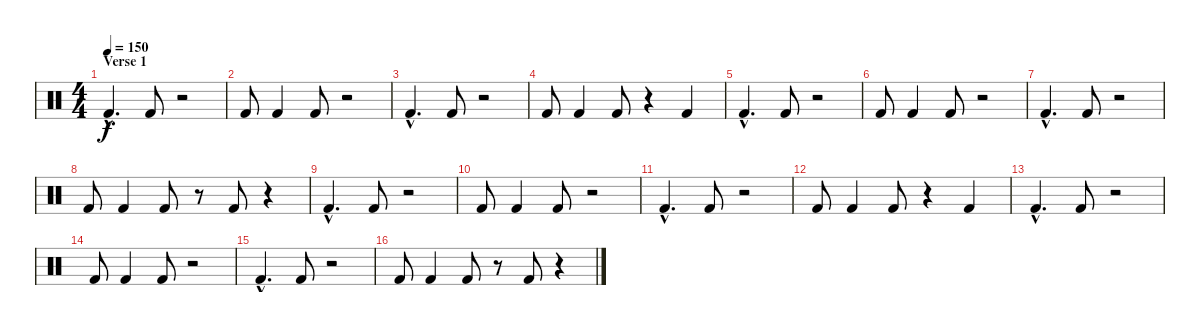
\track "" {instrument percussion}
\staff {score}
\articulation defaults
\ts (4 4)
\section ("" "Verse 1")
\tempo 150
\clef neutral
\ks c "Kick (hit) 2"{hac}.4{d dy f} "Kick (hit) 2".8
r.2 |
"Kick (hit) 2".8 "Kick (hit) 2".4 "Kick (hit) 2".8 r.2 |
"Kick (hit) 2"{hac}.4{d} "Kick (hit) 2".8 r.2 |
"Kick (hit) 2".8 "Kick (hit) 2".4 "Kick (hit) 2".8 r.4 "Kick (hit) 2".4 |
"Kick (hit) 2"{hac}.4{d} "Kick (hit) 2".8 r.2 |
"Kick (hit) 2".8 "Kick (hit) 2".4 "Kick (hit) 2".8 r.2 |
"Kick (hit) 2"{hac}.4{d} "Kick (hit) 2".8 r.2 |
"Kick (hit) 2".8 "Kick (hit) 2".4 "Kick (hit) 2".8 r.8 "Kick (hit) 2".8 r.4 |
"Kick (hit) 2"{hac}.4{d} "Kick (hit) 2".8 r.2 |
"Kick (hit) 2".8 "Kick (hit) 2".4 "Kick (hit) 2".8 r.2 |
"Kick (hit) 2"{hac}.4{d} "Kick (hit) 2".8 r.2 |
"Kick (hit) 2".8 "Kick (hit) 2".4 "Kick (hit) 2".8 r.4 "Kick (hit) 2".4 |
"Kick (hit) 2"{hac}.4{d} "Kick (hit) 2".8 r.2 |
"Kick (hit) 2".8 "Kick (hit) 2".4 "Kick (hit) 2".8 r.2 |
"Kick (hit) 2"{hac}.4{d} "Kick (hit) 2".8 r.2 |
"Kick (hit) 2".8 "Kick (hit) 2".4 "Kick (hit) 2".8 r.8 "Kick (hit) 2".8 r.4
